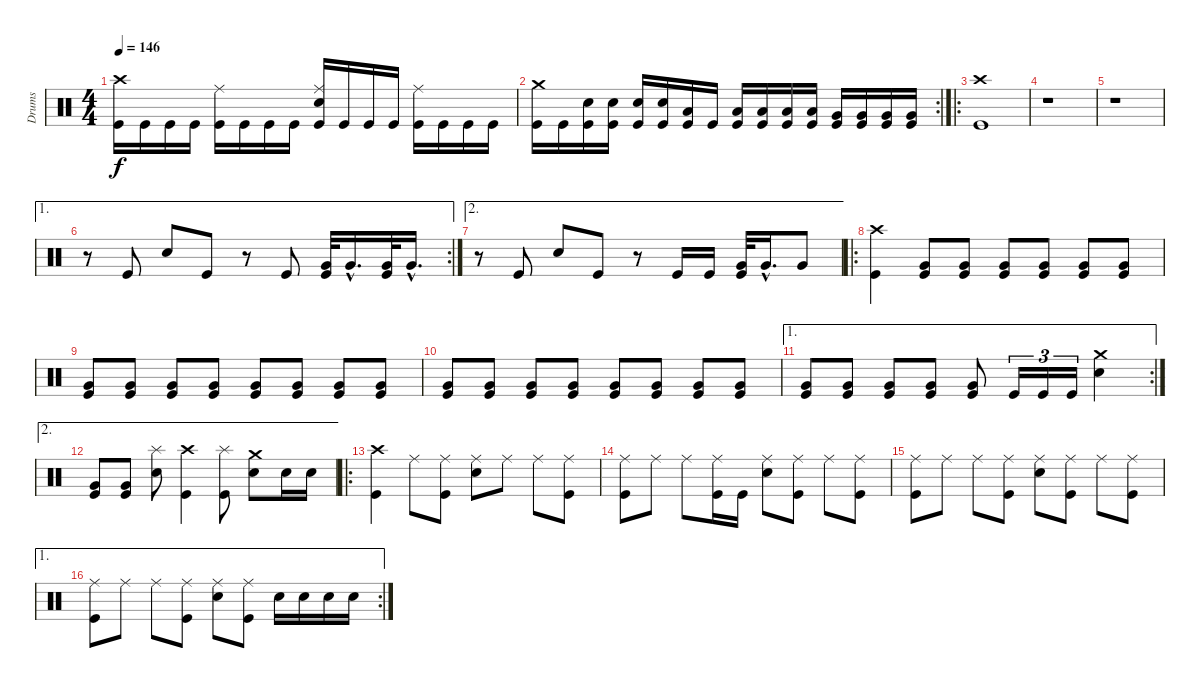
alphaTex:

\track ("Drums" "Drums") {instrument percussion}
\staff {score}
\articulation defaults
\ts (4 4)
\tempo 146
\clef neutral
\ks c
("Crash high (hit)" "Kick (hit)").16{dy f} "Kick (hit)".16 "Kick (hit)".16 "Kick (hit)".16 ("Ride (middle)" "Kick (hit)").16 "Kick (hit)".16 "Kick (hit)".16 "Kick (hit)".16 ("Ride (middle)" "Electric Snare (hit)" "Kick (hit)").16 "Kick (hit)".16 "Kick (hit)".16 "Kick (hit)".16 ("Ride (middle)" "Kick (hit)").16 "Kick (hit)".16 "Kick (hit)".16 "Kick (hit)".16 |
\rc 2
("Crash medium (hit)" "Kick (hit)").16 "Kick (hit)".16 ("Electric Snare (hit)" "Kick (hit)").16 ("Electric Snare (hit)" "Kick (hit)").16 ("Electric Snare (hit)" "Kick (hit)").16 ("Electric Snare (hit)" "Kick (hit)").16 ("Low Tom (hit)" "Kick (hit)").16 "Kick (hit)".16 ("Low Tom (hit)" "Kick (hit)").16 ("Low Tom (hit)" "Kick (hit)").16 ("Low Tom (hit)" "Kick (hit)").16 ("Low Tom (hit)" "Kick (hit)").16 ("Very Low Tom (hit)" "Kick (hit)").16 ("Very Low Tom (hit)" "Kick (hit)").16 ("Very Low Tom (hit)" "Kick (hit)").16 ("Very Low Tom (hit)" "Kick (hit)").16 |
\ro
("Crash high (hit)" "Kick (hit)").1 |
r.1 |
r.1 |
\ae 1
\rc 2
r.8 "Kick (hit)".8 "Electric Snare (hit)".8 "Kick (hit)".8 r.8 "Kick (hit)".8 ("Very Low Tom (hit)" "Kick (hit)").32 "Very Low Tom (hit)"{hac}.16{d} ("Very Low Tom (hit)" "Kick (hit)").32 "Very Low Tom (hit)"{hac}.16{d} |
\ae 2
r.8 "Kick (hit)".8 "Electric Snare (hit)".8 "Kick (hit)".8 r.8 "Kick (hit)".16 "Kick (hit)".16 ("Very Low Tom (hit)" "Kick (hit)").32 "Very Low Tom (hit)"{hac}.16{d} "Very Low Tom (hit)".8 |
\ro
("Crash high (hit)" "Kick (hit)").4 ("Very Low Tom (hit)" "Kick (hit)").8 ("Very Low Tom (hit)" "Kick (hit)").8 ("Very Low Tom (hit)" "Kick (hit)").8 ("Very Low Tom (hit)" "Kick (hit)").8 ("Very Low Tom (hit)" "Kick (hit)").8 ("Very Low Tom (hit)" "Kick (hit)").8 |
("Very Low Tom (hit)" "Kick (hit)").8 ("Very Low Tom (hit)" "Kick (hit)").8 ("Very Low Tom (hit)" "Kick (hit)").8 ("Very Low Tom (hit)" "Kick (hit)").8 ("Very Low Tom (hit)" "Kick (hit)").8 ("Very Low Tom (hit)" "Kick (hit)").8 ("Very Low Tom (hit)" "Kick (hit)").8 ("Very Low Tom (hit)" "Kick (hit)").8 |
("Very Low Tom (hit)" "Kick (hit)").8 ("Very Low Tom (hit)" "Kick (hit)").8 ("Very Low Tom (hit)" "Kick (hit)").8 ("Very Low Tom (hit)" "Kick (hit)").8 ("Very Low Tom (hit)" "Kick (hit)").8 ("Very Low Tom (hit)" "Kick (hit)").8 ("Very Low Tom (hit)" "Kick (hit)").8 ("Very Low Tom (hit)" "Kick (hit)").8 |
\ae 1
\rc 2
("Very Low Tom (hit)" "Kick (hit)").8 ("Very Low Tom (hit)" "Kick (hit)").8 ("Very Low Tom (hit)" "Kick (hit)").8 ("Very Low Tom (hit)" "Kick (hit)").8 ("Very Low Tom (hit)" "Kick (hit)").8 "Kick (hit)".16{tu (3 2)} "Kick (hit)".16{tu (3 2)} "Kick (hit)".16{tu (3 2)} ("Crash medium (hit)" "Electric Snare (hit)").4 |
\ae 2
("Very Low Tom (hit)" "Kick (hit)").8 ("Very Low Tom (hit)" "Kick (hit)").8 ("Splash (hit)" "Electric Snare (hit)").8 ("Crash high (hit)" "Kick (hit)").4 ("Splash (hit)" "Kick (hit)").8 ("Crash medium (hit)" "Electric Snare (hit)").8 "Electric Snare (hit)".16 "Electric Snare (hit)".16 |
\ro
("Crash high (hit)" "Kick (hit)").4 "Ride (middle)".8 ("Ride (middle)" "Kick (hit)").8 ("Ride (middle)" "Electric Snare (hit)").8 "Ride (middle)".8 "Ride (middle)".8 ("Ride (middle)" "Kick (hit)").8 |
("Ride (middle)" "Kick (hit)").8 "Ride (middle)".8 "Ride (middle)".8 ("Ride (middle)" "Kick (hit)").16 "Kick (hit)".16 ("Ride (middle)" "Electric Snare (hit)").8 ("Ride (middle)" "Kick (hit)").8 "Ride (middle)".8 ("Ride (middle)" "Kick (hit)").8 |
("Ride (middle)" "Kick (hit)").8 "Ride (middle)".8 "Ride (middle)".8 ("Ride (middle)" "Kick (hit)").8 ("Ride (middle)" "Electric Snare (hit)").8 ("Ride (middle)" "Kick (hit)").8 "Ride (middle)".8 ("Ride (middle)" "Kick (hit)").8 |
\ae 1
\rc 2
("Ride (middle)" "Kick (hit)").8 "Ride (middle)".8 "Ride (middle)".8 ("Ride (middle)" "Kick (hit)").8 ("Ride (middle)" "Electric Snare (hit)").8 ("Ride (middle)" "Kick (hit)").8 "Electric Snare (hit)".16 "Electric Snare (hit)".16 "Electric Snare (hit)".16 "Electric Snare (hit)".16
